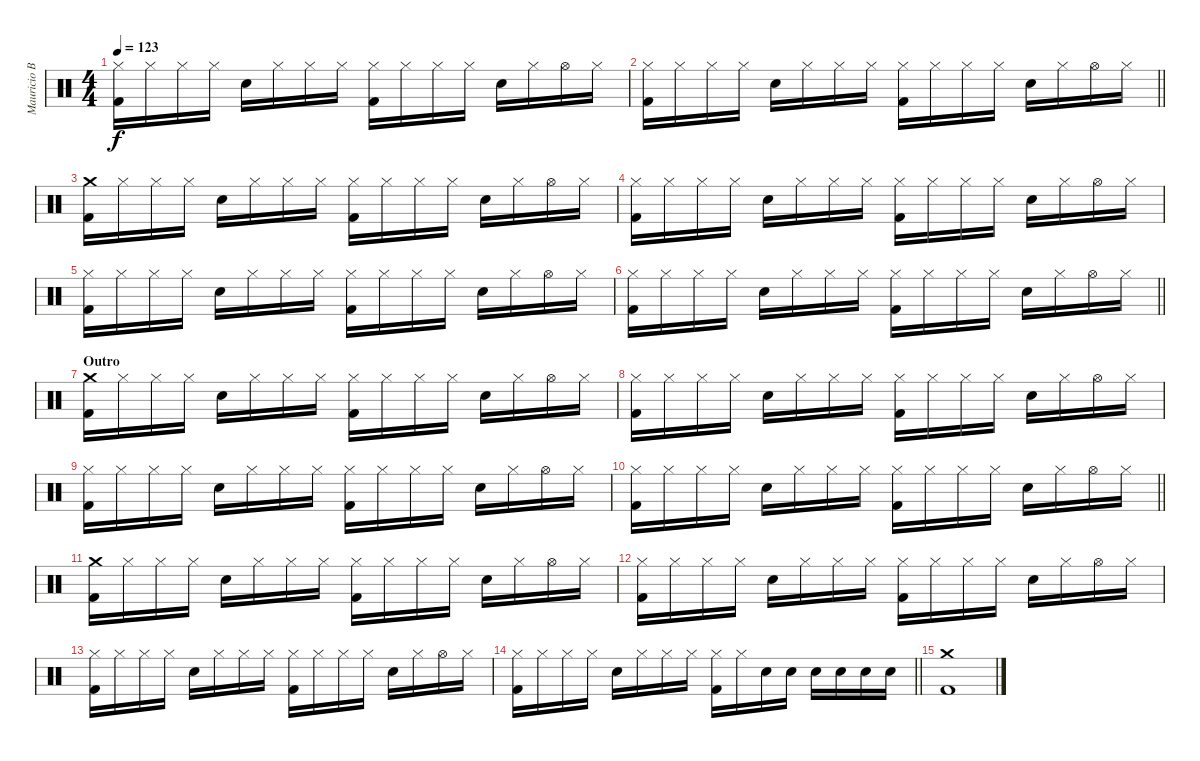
\track ("Mauricio Basualto" "Mauricio B") {instrument percussion}
\staff {score}
\articulation defaults
\ts (4 4)
\tempo 123
\clef neutral
\ks c
("Hi-Hat (closed)" "Kick (hit) 2").16{dy f} "Hi-Hat (closed)".16 "Hi-Hat (closed)".16 "Hi-Hat (closed)".16 "Electric Snare (hit)".16 "Hi-Hat (closed)".16 "Hi-Hat (closed)".16 "Hi-Hat (closed)".16 ("Hi-Hat (closed)" "Kick (hit) 2").16 "Hi-Hat (closed)".16 "Hi-Hat (closed)".16 "Hi-Hat (closed)".16 "Electric Snare (hit)".16 "Hi-Hat (closed)".16 "Hi-Hat (open)".16 "Hi-Hat (closed)".16 |
\barLineRight lightlight
("Hi-Hat (closed)" "Kick (hit) 2").16 "Hi-Hat (closed)".16 "Hi-Hat (closed)".16 "Hi-Hat (closed)".16 "Electric Snare (hit)".16 "Hi-Hat (closed)".16 "Hi-Hat (closed)".16 "Hi-Hat (closed)".16 ("Hi-Hat (closed)" "Kick (hit) 2").16 "Hi-Hat (closed)".16 "Hi-Hat (closed)".16 "Hi-Hat (closed)".16 "Electric Snare (hit)".16 "Hi-Hat (closed)".16 "Hi-Hat (open)".16 "Hi-Hat (closed)".16 |
("Crash medium (hit)" "Kick (hit) 2").16 "Hi-Hat (closed)".16 "Hi-Hat (closed)".16 "Hi-Hat (closed)".16 "Electric Snare (hit)".16 "Hi-Hat (closed)".16 "Hi-Hat (closed)".16 "Hi-Hat (closed)".16 ("Hi-Hat (closed)" "Kick (hit) 2").16 "Hi-Hat (closed)".16 "Hi-Hat (closed)".16 "Hi-Hat (closed)".16 "Electric Snare (hit)".16 "Hi-Hat (closed)".16 "Hi-Hat (open)".16 "Hi-Hat (closed)".16 |
("Hi-Hat (closed)" "Kick (hit) 2").16 "Hi-Hat (closed)".16 "Hi-Hat (closed)".16 "Hi-Hat (closed)".16 "Electric Snare (hit)".16 "Hi-Hat (closed)".16 "Hi-Hat (closed)".16 "Hi-Hat (closed)".16 ("Hi-Hat (closed)" "Kick (hit) 2").16 "Hi-Hat (closed)".16 "Hi-Hat (closed)".16 "Hi-Hat (closed)".16 "Electric Snare (hit)".16 "Hi-Hat (closed)".16 "Hi-Hat (open)".16 "Hi-Hat (closed)".16 |
("Hi-Hat (closed)" "Kick (hit) 2").16 "Hi-Hat (closed)".16 "Hi-Hat (closed)".16 "Hi-Hat (closed)".16 "Electric Snare (hit)".16 "Hi-Hat (closed)".16 "Hi-Hat (closed)".16 "Hi-Hat (closed)".16 ("Hi-Hat (closed)" "Kick (hit) 2").16 "Hi-Hat (closed)".16 "Hi-Hat (closed)".16 "Hi-Hat (closed)".16 "Electric Snare (hit)".16 "Hi-Hat (closed)".16 "Hi-Hat (open)".16 "Hi-Hat (closed)".16 |
\barLineRight lightlight
("Hi-Hat (closed)" "Kick (hit) 2").16 "Hi-Hat (closed)".16 "Hi-Hat (closed)".16 "Hi-Hat (closed)".16 "Electric Snare (hit)".16 "Hi-Hat (closed)".16 "Hi-Hat (closed)".16 "Hi-Hat (closed)".16 ("Hi-Hat (closed)" "Kick (hit) 2").16 "Hi-Hat (closed)".16 "Hi-Hat (closed)".16 "Hi-Hat (closed)".16 "Electric Snare (hit)".16 "Hi-Hat (closed)".16 "Hi-Hat (open)".16 "Hi-Hat (closed)".16 |
\section ("" "Outro")
("Crash medium (hit)" "Kick (hit) 2").16 "Hi-Hat (closed)".16 "Hi-Hat (closed)".16 "Hi-Hat (closed)".16 "Electric Snare (hit)".16 "Hi-Hat (closed)".16 "Hi-Hat (closed)".16 "Hi-Hat (closed)".16 ("Hi-Hat (closed)" "Kick (hit) 2").16 "Hi-Hat (closed)".16 "Hi-Hat (closed)".16 "Hi-Hat (closed)".16 "Electric Snare (hit)".16 "Hi-Hat (closed)".16 "Hi-Hat (open)".16 "Hi-Hat (closed)".16 |
("Hi-Hat (closed)" "Kick (hit) 2").16 "Hi-Hat (closed)".16 "Hi-Hat (closed)".16 "Hi-Hat (closed)".16 "Electric Snare (hit)".16 "Hi-Hat (closed)".16 "Hi-Hat (closed)".16 "Hi-Hat (closed)".16 ("Hi-Hat (closed)" "Kick (hit) 2").16 "Hi-Hat (closed)".16 "Hi-Hat (closed)".16 "Hi-Hat (closed)".16 "Electric Snare (hit)".16 "Hi-Hat (closed)".16 "Hi-Hat (open)".16 "Hi-Hat (closed)".16 |
("Hi-Hat (closed)" "Kick (hit) 2").16 "Hi-Hat (closed)".16 "Hi-Hat (closed)".16 "Hi-Hat (closed)".16 "Electric Snare (hit)".16 "Hi-Hat (closed)".16 "Hi-Hat (closed)".16 "Hi-Hat (closed)".16 ("Hi-Hat (closed)" "Kick (hit) 2").16 "Hi-Hat (closed)".16 "Hi-Hat (closed)".16 "Hi-Hat (closed)".16 "Electric Snare (hit)".16 "Hi-Hat (closed)".16 "Hi-Hat (open)".16 "Hi-Hat (closed)".16 |
\barLineRight lightlight
("Hi-Hat (closed)" "Kick (hit) 2").16 "Hi-Hat (closed)".16 "Hi-Hat (closed)".16 "Hi-Hat (closed)".16 "Electric Snare (hit)".16 "Hi-Hat (closed)".16 "Hi-Hat (closed)".16 "Hi-Hat (closed)".16 ("Hi-Hat (closed)" "Kick (hit) 2").16 "Hi-Hat (closed)".16 "Hi-Hat (closed)".16 "Hi-Hat (closed)".16 "Electric Snare (hit)".16 "Hi-Hat (closed)".16 "Hi-Hat (open)".16 "Hi-Hat (closed)".16 |
("Crash medium (hit)" "Kick (hit) 2").16 "Hi-Hat (closed)".16 "Hi-Hat (closed)".16 "Hi-Hat (closed)".16 "Electric Snare (hit)".16 "Hi-Hat (closed)".16 "Hi-Hat (closed)".16 "Hi-Hat (closed)".16 ("Hi-Hat (closed)" "Kick (hit) 2").16 "Hi-Hat (closed)".16 "Hi-Hat (closed)".16 "Hi-Hat (closed)".16 "Electric Snare (hit)".16 "Hi-Hat (closed)".16 "Hi-Hat (open)".16 "Hi-Hat (closed)".16 |
("Hi-Hat (closed)" "Kick (hit) 2").16 "Hi-Hat (closed)".16 "Hi-Hat (closed)".16 "Hi-Hat (closed)".16 "Electric Snare (hit)".16 "Hi-Hat (closed)".16 "Hi-Hat (closed)".16 "Hi-Hat (closed)".16 ("Hi-Hat (closed)" "Kick (hit) 2").16 "Hi-Hat (closed)".16 "Hi-Hat (closed)".16 "Hi-Hat (closed)".16 "Electric Snare (hit)".16 "Hi-Hat (closed)".16 "Hi-Hat (open)".16 "Hi-Hat (closed)".16 |
("Hi-Hat (closed)" "Kick (hit) 2").16 "Hi-Hat (closed)".16 "Hi-Hat (closed)".16 "Hi-Hat (closed)".16 "Electric Snare (hit)".16 "Hi-Hat (closed)".16 "Hi-Hat (closed)".16 "Hi-Hat (closed)".16 ("Hi-Hat (closed)" "Kick (hit) 2").16 "Hi-Hat (closed)".16 "Hi-Hat (closed)".16 "Hi-Hat (closed)".16 "Electric Snare (hit)".16 "Hi-Hat (closed)".16 "Hi-Hat (open)".16 "Hi-Hat (closed)".16 |
\barLineRight lightlight
("Hi-Hat (closed)" "Kick (hit) 2").16 "Hi-Hat (closed)".16 "Hi-Hat (closed)".16 "Hi-Hat (closed)".16 "Electric Snare (hit)".16 "Hi-Hat (closed)".16 "Hi-Hat (closed)".16 "Hi-Hat (closed)".16 ("Hi-Hat (closed)" "Kick (hit) 2").16 "Hi-Hat (closed)".16 "Electric Snare (hit)".16 "Electric Snare (hit)".16 "Electric Snare (hit)".16 "Electric Snare (hit)".16 "Electric Snare (hit)".16 "Electric Snare (hit)".16 |
("Crash medium (hit)" "Kick (hit) 2").1
